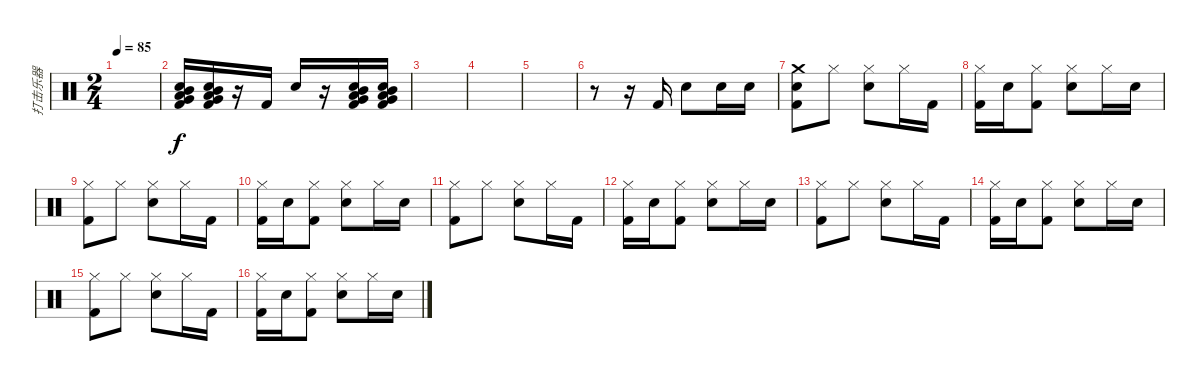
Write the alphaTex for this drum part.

\track ("打击乐器" "打击乐器") {instrument percussion}
\staff {score}
\articulation defaults
\ts (2 4)
\tempo 85
\clef neutral
\ks c
|
("Electric Snare (hit)" "Mid Tom (hit)" "Low Tom (hit)" "Very Low Tom (hit)" "Kick (hit) 2").16 ("Electric Snare (hit)" "Mid Tom (hit)" "Low Tom (hit)" "Very Low Tom (hit)" "Kick (hit) 2").16 r.16 "Kick (hit) 2".16 "Electric Snare (hit)".16 r.16 ("Electric Snare (hit)" "Mid Tom (hit)" "Low Tom (hit)" "Very Low Tom (hit)" "Kick (hit) 2").16 ("Electric Snare (hit)" "Mid Tom (hit)" "Low Tom (hit)" "Very Low Tom (hit)" "Kick (hit) 2").16 |
|
|
|
r.8 r.16 "Kick (hit) 2".16 "Electric Snare (hit)".8 "Electric Snare (hit)".16 "Electric Snare (hit)".16 |
("Crash medium (hit)" "Electric Snare (hit)" "Kick (hit) 2").8 "Hi-Hat (closed)".8 ("Hi-Hat (closed)" "Electric Snare (hit)").8 "Hi-Hat (closed)".16 "Kick (hit) 2".16 |
("Hi-Hat (closed)" "Kick (hit) 2").16 "Electric Snare (hit)".16 ("Hi-Hat (closed)" "Kick (hit) 2").8 ("Hi-Hat (closed)" "Electric Snare (hit)").8 "Hi-Hat (closed)".16 "Electric Snare (hit)".16 |
("Hi-Hat (closed)" "Kick (hit) 2").8 "Hi-Hat (closed)".8 ("Hi-Hat (closed)" "Electric Snare (hit)").8 "Hi-Hat (closed)".16 "Kick (hit) 2".16 |
("Hi-Hat (closed)" "Kick (hit) 2").16 "Electric Snare (hit)".16 ("Hi-Hat (closed)" "Kick (hit) 2").8 ("Hi-Hat (closed)" "Electric Snare (hit)").8 "Hi-Hat (closed)".16 "Electric Snare (hit)".16 |
("Hi-Hat (closed)" "Kick (hit) 2").8 "Hi-Hat (closed)".8 ("Hi-Hat (closed)" "Electric Snare (hit)").8 "Hi-Hat (closed)".16 "Kick (hit) 2".16 |
("Hi-Hat (closed)" "Kick (hit) 2").16 "Electric Snare (hit)".16 ("Hi-Hat (closed)" "Kick (hit) 2").8 ("Hi-Hat (closed)" "Electric Snare (hit)").8 "Hi-Hat (closed)".16 "Electric Snare (hit)".16 |
("Hi-Hat (closed)" "Kick (hit) 2").8 "Hi-Hat (closed)".8 ("Hi-Hat (closed)" "Electric Snare (hit)").8 "Hi-Hat (closed)".16 "Kick (hit) 2".16 |
("Hi-Hat (closed)" "Kick (hit) 2").16 "Electric Snare (hit)".16 ("Hi-Hat (closed)" "Kick (hit) 2").8 ("Hi-Hat (closed)" "Electric Snare (hit)").8 "Hi-Hat (closed)".16 "Electric Snare (hit)".16 |
("Hi-Hat (closed)" "Kick (hit) 2").8 "Hi-Hat (closed)".8 ("Hi-Hat (closed)" "Electric Snare (hit)").8 "Hi-Hat (closed)".16 "Kick (hit) 2".16 |
("Hi-Hat (closed)" "Kick (hit) 2").16 "Electric Snare (hit)".16 ("Hi-Hat (closed)" "Kick (hit) 2").8 ("Hi-Hat (closed)" "Electric Snare (hit)").8 "Hi-Hat (closed)".16 "Electric Snare (hit)".16
